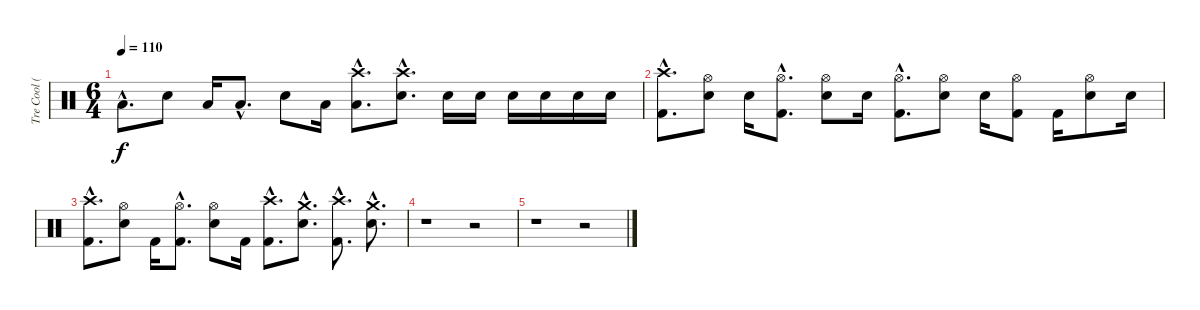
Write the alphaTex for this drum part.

\track ("Tre Cool (Drums)" "Tre Cool (") {instrument percussion}
\staff {score}
\articulation defaults
\ts (6 4)
\tempo 110
\clef neutral
\ks c "Low Floor Tom (hit)"{hac}.8{d dy f} "Electric Snare (hit)".8 "Low Floor Tom (hit)".16 "Low Floor Tom (hit)"{hac}.8{d} "Electric Snare (hit)".8 "Low Floor Tom (hit)".16
("Crash high (hit)"{hac} "Low Floor Tom (hit)"{hac}).8{d} ("Crash high (hit)"{hac} "Electric Snare (hit)"{hac}).8{d} "Electric Snare (hit)".16 "Electric Snare (hit)".16 "Electric Snare (hit)".16 "Electric Snare (hit)".16 "Electric Snare (hit)".16 "Electric Snare (hit)".16 |
("Crash high (hit)"{hac} "Kick (hit) 2"{hac}).8{d} ("Hi-Hat (open)" "Electric Snare (hit)").8 "Electric Snare (hit)".16 ("Hi-Hat (open)"{hac} "Kick (hit) 2"{hac}).8{d} ("Hi-Hat (open)" "Electric Snare (hit)").8 "Electric Snare (hit)".16 ("Hi-Hat (open)"{hac} "Kick (hit) 2"{hac}).8{d} ("Hi-Hat (open)" "Electric Snare (hit)").8 "Electric Snare (hit)".16 ("Hi-Hat (open)" "Kick (hit) 2").8 "Kick (hit) 2".16 ("Hi-Hat (open)" "Electric Snare (hit)").8 "Electric Snare (hit)".16 |
("Crash high (hit)"{hac} "Kick (hit) 2"{hac}).8{d} ("Hi-Hat (open)" "Electric Snare (hit)").8 "Kick (hit) 2".16 ("Hi-Hat (open)"{hac} "Kick (hit) 2"{hac}).8{d} ("Hi-Hat (open)" "Electric Snare (hit)").8 "Kick (hit) 2".16 ("Crash high (hit)"{hac} "Kick (hit) 2"{hac}).8{d} ("Crash medium (hit)"{hac} "Electric Snare (hit)"{hac}).8{d} ("Crash high (hit)"{hac} "Kick (hit) 2"{hac}).8{d} ("Crash medium (hit)"{hac} "Electric Snare (hit)"{hac}).8{d volume 16} |
r.1 r.2 |
r.1 r.2
